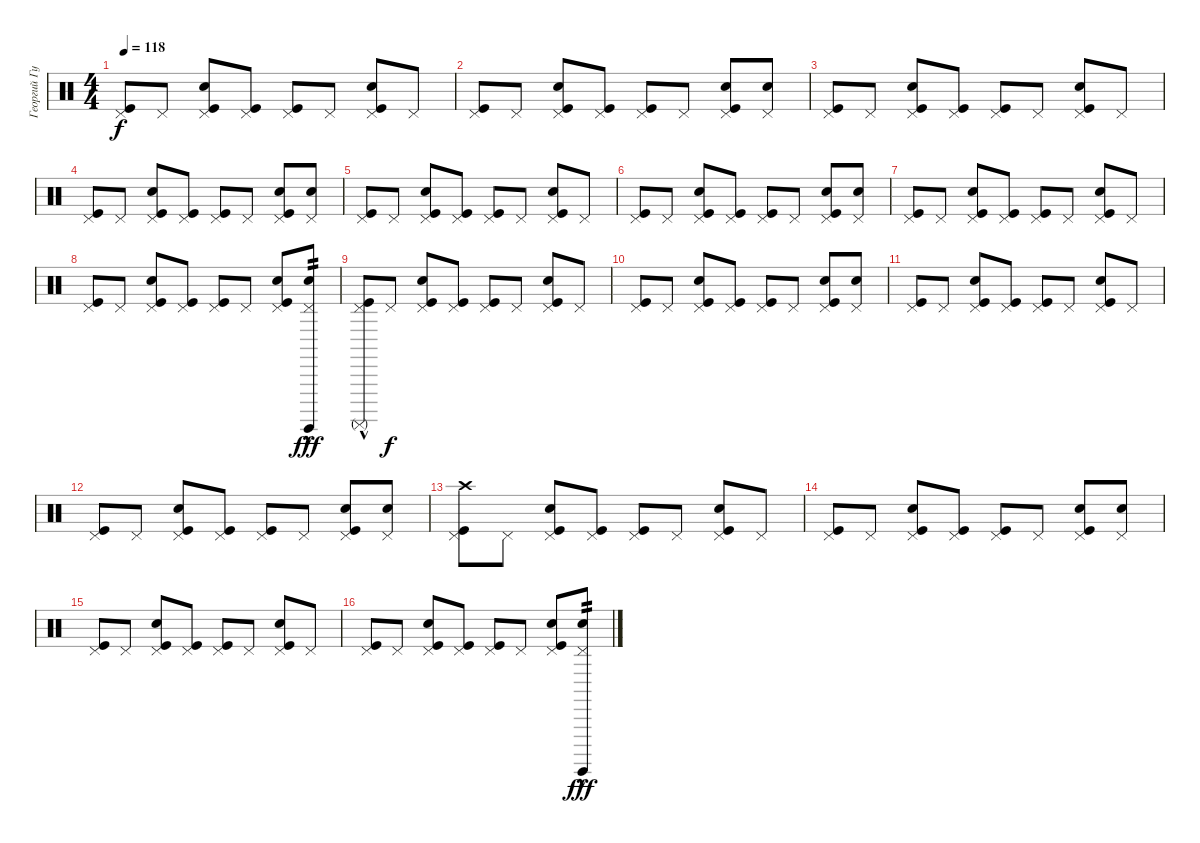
\track ("Георгий Гурьянов" "Георгий Гу") {instrument percussion}
\staff {score}
\articulation defaults
\ts (4 4)
\tempo 118
\clef neutral
\ks c
("Pedal Hi-Hat (hit)" "Kick (hit)").8{dy f} "Pedal Hi-Hat (hit)".8 ("Pedal Hi-Hat (hit)" "Kick (hit)" "Snare (hit) 2").8 ("Pedal Hi-Hat (hit)" "Kick (hit)").8 ("Pedal Hi-Hat (hit)" "Kick (hit)").8 "Pedal Hi-Hat (hit)".8 ("Pedal Hi-Hat (hit)" "Kick (hit)" "Snare (hit) 2").8 "Pedal Hi-Hat (hit)".8 |
("Pedal Hi-Hat (hit)" "Kick (hit)").8 "Pedal Hi-Hat (hit)".8 ("Pedal Hi-Hat (hit)" "Kick (hit)" "Snare (hit) 2").8 ("Pedal Hi-Hat (hit)" "Kick (hit)").8 ("Pedal Hi-Hat (hit)" "Kick (hit)").8 "Pedal Hi-Hat (hit)".8 ("Pedal Hi-Hat (hit)" "Kick (hit)" "Snare (hit) 2").8 ("Pedal Hi-Hat (hit)" "Snare (hit) 2").8 |
("Pedal Hi-Hat (hit)" "Kick (hit)").8 "Pedal Hi-Hat (hit)".8 ("Pedal Hi-Hat (hit)" "Kick (hit)" "Snare (hit) 2").8 ("Pedal Hi-Hat (hit)" "Kick (hit)").8 ("Pedal Hi-Hat (hit)" "Kick (hit)").8 "Pedal Hi-Hat (hit)".8 ("Pedal Hi-Hat (hit)" "Kick (hit)" "Snare (hit) 2").8 "Pedal Hi-Hat (hit)".8 |
("Pedal Hi-Hat (hit)" "Kick (hit)").8 "Pedal Hi-Hat (hit)".8 ("Pedal Hi-Hat (hit)" "Kick (hit)" "Snare (hit) 2").8 ("Pedal Hi-Hat (hit)" "Kick (hit)").8 ("Pedal Hi-Hat (hit)" "Kick (hit)").8 "Pedal Hi-Hat (hit)".8 ("Pedal Hi-Hat (hit)" "Kick (hit)" "Snare (hit) 2").8 ("Pedal Hi-Hat (hit)" "Snare (hit) 2").8 |
("Pedal Hi-Hat (hit)" "Kick (hit)").8 "Pedal Hi-Hat (hit)".8 ("Pedal Hi-Hat (hit)" "Kick (hit)" "Snare (hit) 2").8 ("Pedal Hi-Hat (hit)" "Kick (hit)").8 ("Pedal Hi-Hat (hit)" "Kick (hit)").8 "Pedal Hi-Hat (hit)".8 ("Pedal Hi-Hat (hit)" "Kick (hit)" "Snare (hit) 2").8 "Pedal Hi-Hat (hit)".8 |
("Pedal Hi-Hat (hit)" "Kick (hit)").8 "Pedal Hi-Hat (hit)".8 ("Pedal Hi-Hat (hit)" "Kick (hit)" "Snare (hit) 2").8 ("Pedal Hi-Hat (hit)" "Kick (hit)").8 ("Pedal Hi-Hat (hit)" "Kick (hit)").8 "Pedal Hi-Hat (hit)".8 ("Pedal Hi-Hat (hit)" "Kick (hit)" "Snare (hit) 2").8 ("Pedal Hi-Hat (hit)" "Snare (hit) 2").8 |
("Pedal Hi-Hat (hit)" "Kick (hit)").8 "Pedal Hi-Hat (hit)".8 ("Pedal Hi-Hat (hit)" "Kick (hit)" "Snare (hit) 2").8 ("Pedal Hi-Hat (hit)" "Kick (hit)").8 ("Pedal Hi-Hat (hit)" "Kick (hit)").8 "Pedal Hi-Hat (hit)".8 ("Pedal Hi-Hat (hit)" "Kick (hit)" "Snare (hit) 2").8 "Pedal Hi-Hat (hit)".8 |
("Pedal Hi-Hat (hit)" "Kick (hit)").8 "Pedal Hi-Hat (hit)".8 ("Pedal Hi-Hat (hit)" "Kick (hit)" "Snare (hit) 2").8 ("Pedal Hi-Hat (hit)" "Kick (hit)").8 ("Pedal Hi-Hat (hit)" "Kick (hit)").8 "Pedal Hi-Hat (hit)".8 ("Pedal Hi-Hat (hit)" "Kick (hit)" "Snare (hit) 2").8 ("Pedal Hi-Hat (hit)" "Snare (hit) 2" "Surdo (hit)"{hac}).8{tp 2 dy fff} |
("Pedal Hi-Hat (hit)" "Kick (hit)" "Surdo (mute)"{hac}).8 "Pedal Hi-Hat (hit)".8{dy f} ("Pedal Hi-Hat (hit)" "Kick (hit)" "Snare (hit) 2").8 ("Pedal Hi-Hat (hit)" "Kick (hit)").8 ("Pedal Hi-Hat (hit)" "Kick (hit)").8 "Pedal Hi-Hat (hit)".8 ("Pedal Hi-Hat (hit)" "Kick (hit)" "Snare (hit) 2").8 "Pedal Hi-Hat (hit)".8 |
("Pedal Hi-Hat (hit)" "Kick (hit)").8 "Pedal Hi-Hat (hit)".8 ("Pedal Hi-Hat (hit)" "Kick (hit)" "Snare (hit) 2").8 ("Pedal Hi-Hat (hit)" "Kick (hit)").8 ("Pedal Hi-Hat (hit)" "Kick (hit)").8 "Pedal Hi-Hat (hit)".8 ("Pedal Hi-Hat (hit)" "Kick (hit)" "Snare (hit) 2").8 ("Pedal Hi-Hat (hit)" "Snare (hit) 2").8 |
("Pedal Hi-Hat (hit)" "Kick (hit)").8 "Pedal Hi-Hat (hit)".8 ("Pedal Hi-Hat (hit)" "Kick (hit)" "Snare (hit) 2").8 ("Pedal Hi-Hat (hit)" "Kick (hit)").8 ("Pedal Hi-Hat (hit)" "Kick (hit)").8 "Pedal Hi-Hat (hit)".8 ("Pedal Hi-Hat (hit)" "Kick (hit)" "Snare (hit) 2").8 "Pedal Hi-Hat (hit)".8 |
("Pedal Hi-Hat (hit)" "Kick (hit)").8 "Pedal Hi-Hat (hit)".8 ("Pedal Hi-Hat (hit)" "Kick (hit)" "Snare (hit) 2").8 ("Pedal Hi-Hat (hit)" "Kick (hit)").8 ("Pedal Hi-Hat (hit)" "Kick (hit)").8 "Pedal Hi-Hat (hit)".8 ("Pedal Hi-Hat (hit)" "Kick (hit)" "Snare (hit) 2").8 ("Pedal Hi-Hat (hit)" "Snare (hit) 2").8 |
("Pedal Hi-Hat (hit)" "Kick (hit)" "Crash high (hit)").8 "Pedal Hi-Hat (hit)".8 ("Pedal Hi-Hat (hit)" "Kick (hit)" "Snare (hit) 2").8 ("Pedal Hi-Hat (hit)" "Kick (hit)").8 ("Pedal Hi-Hat (hit)" "Kick (hit)").8 "Pedal Hi-Hat (hit)".8 ("Pedal Hi-Hat (hit)" "Kick (hit)" "Snare (hit) 2").8 "Pedal Hi-Hat (hit)".8 |
("Pedal Hi-Hat (hit)" "Kick (hit)").8 "Pedal Hi-Hat (hit)".8 ("Pedal Hi-Hat (hit)" "Kick (hit)" "Snare (hit) 2").8 ("Pedal Hi-Hat (hit)" "Kick (hit)").8 ("Pedal Hi-Hat (hit)" "Kick (hit)").8 "Pedal Hi-Hat (hit)".8 ("Pedal Hi-Hat (hit)" "Kick (hit)" "Snare (hit) 2").8 ("Pedal Hi-Hat (hit)" "Snare (hit) 2").8 |
("Pedal Hi-Hat (hit)" "Kick (hit)").8 "Pedal Hi-Hat (hit)".8 ("Pedal Hi-Hat (hit)" "Kick (hit)" "Snare (hit) 2").8 ("Pedal Hi-Hat (hit)" "Kick (hit)").8 ("Pedal Hi-Hat (hit)" "Kick (hit)").8 "Pedal Hi-Hat (hit)".8 ("Pedal Hi-Hat (hit)" "Kick (hit)" "Snare (hit) 2").8 "Pedal Hi-Hat (hit)".8 |
("Pedal Hi-Hat (hit)" "Kick (hit)").8 "Pedal Hi-Hat (hit)".8 ("Pedal Hi-Hat (hit)" "Kick (hit)" "Snare (hit) 2").8 ("Pedal Hi-Hat (hit)" "Kick (hit)").8 ("Pedal Hi-Hat (hit)" "Kick (hit)").8 "Pedal Hi-Hat (hit)".8 ("Pedal Hi-Hat (hit)" "Kick (hit)" "Snare (hit) 2").8 ("Pedal Hi-Hat (hit)" "Snare (hit) 2" "Surdo (hit)"{hac}).8{tp 2 dy fff}
